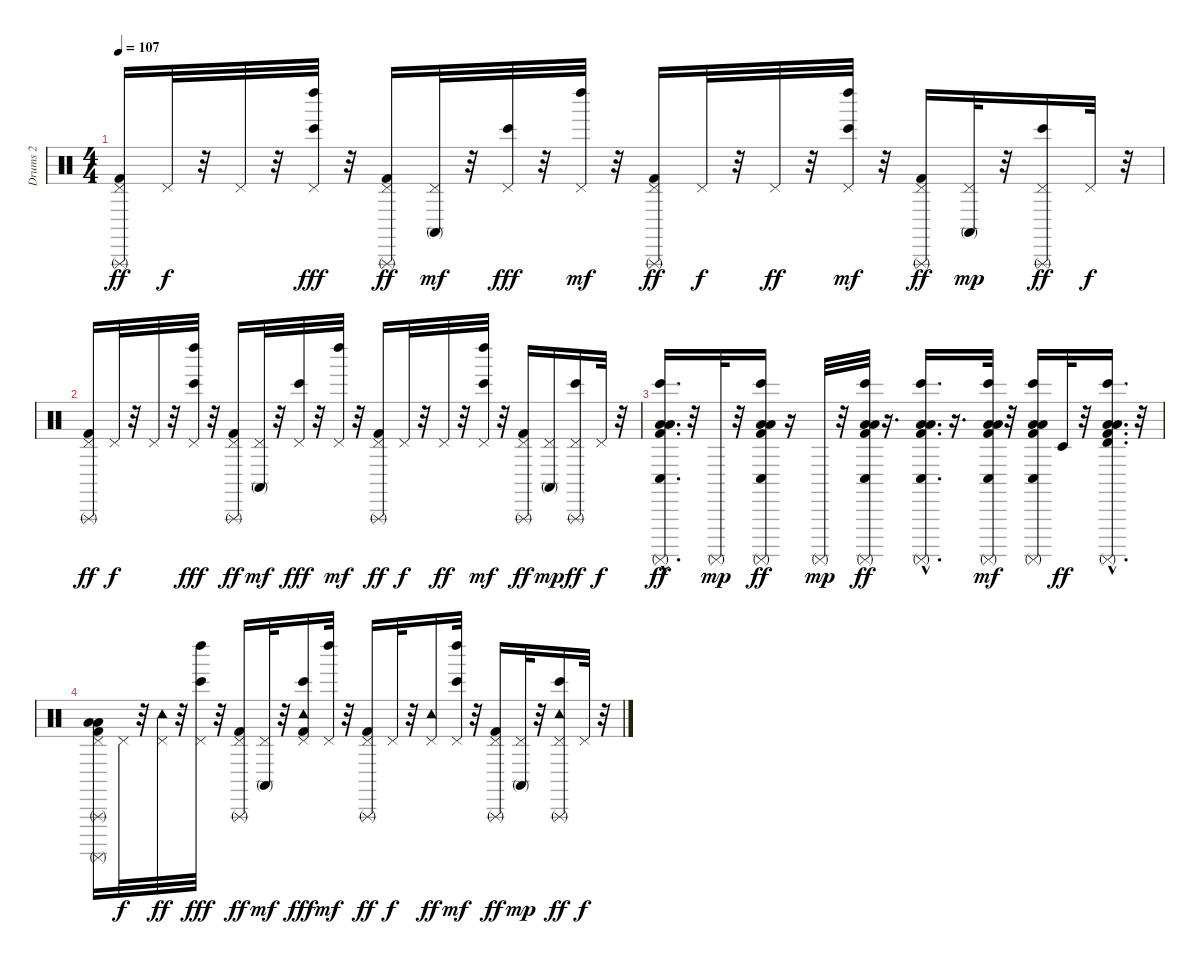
\track ("Drums 2" "Drums 2") {instrument percussion}
\staff {score}
\articulation defaults
\ts (4 4)
\tempo 107
\clef neutral
\ks c
("Kick (hit) 2" "Pedal Hi-Hat (hit)" "Triangle (rnute)").16{dy ff} "Pedal Hi-Hat (hit)".32{dy f} r.32 "Pedal Hi-Hat (hit)".32 r.32 ("Pedal Hi-Hat (hit)" "Bongo High (hit)" "Left Maraca (hit)").32{dy fff} r.32 ("Kick (hit) 2" "Pedal Hi-Hat (hit)" "Triangle (rnute)").16{dy ff} ("Pedal Hi-Hat (hit)" "Conga high (mute)").32{dy mf} r.32 ("Pedal Hi-Hat (hit)" "Bongo High (hit)").32{dy fff} r.32 ("Pedal Hi-Hat (hit)" "Left Maraca (hit)").32{dy mf} r.32 ("Kick (hit) 2" "Pedal Hi-Hat (hit)" "Triangle (rnute)").16{dy ff} "Pedal Hi-Hat (hit)".32{dy f} r.32 "Pedal Hi-Hat (hit)".32{dy ff} r.32 ("Pedal Hi-Hat (hit)" "Bongo High (hit)" "Left Maraca (hit)").32{dy mf} r.32 ("Kick (hit) 2" "Pedal Hi-Hat (hit)" "Triangle (rnute)").16{dy ff} ("Pedal Hi-Hat (hit)" "Conga high (mute)").32{dy mp} r.32 ("Pedal Hi-Hat (hit)" "Bongo High (hit)" "Triangle (rnute)").16{dy ff} "Pedal Hi-Hat (hit)".32{dy f} r.32 |
("Kick (hit) 2" "Pedal Hi-Hat (hit)" "Triangle (rnute)").16{dy ff} "Pedal Hi-Hat (hit)".32{dy f} r.32 "Pedal Hi-Hat (hit)".32 r.32 ("Pedal Hi-Hat (hit)" "Bongo High (hit)" "Left Maraca (hit)").32{dy fff} r.32 ("Kick (hit) 2" "Pedal Hi-Hat (hit)" "Triangle (rnute)").16{dy ff} ("Pedal Hi-Hat (hit)" "Conga high (mute)").32{dy mf} r.32 ("Pedal Hi-Hat (hit)" "Bongo High (hit)").32{dy fff} r.32 ("Pedal Hi-Hat (hit)" "Left Maraca (hit)").32{dy mf} r.32 ("Kick (hit) 2" "Pedal Hi-Hat (hit)" "Triangle (rnute)").16{dy ff} "Pedal Hi-Hat (hit)".32{dy f} r.32 "Pedal Hi-Hat (hit)".32{dy ff} r.32 ("Pedal Hi-Hat (hit)" "Bongo High (hit)" "Left Maraca (hit)").32{dy mf} r.32 ("Kick (hit) 2" "Pedal Hi-Hat (hit)" "Triangle (rnute)").16{dy ff} ("Pedal Hi-Hat (hit)" "Conga high (mute)").16{dy mp} ("Pedal Hi-Hat (hit)" "Bongo High (hit)" "Triangle (rnute)").16{dy ff} "Pedal Hi-Hat (hit)".32{dy f} r.32 |
("Surdo (mute)"{hac} "Kick (hit) 2"{hac} "Low Tom (hit)"{hac} "Low Floor Tom (hit)"{hac} "Bongo High (hit)"{hac} "Conga low (hit)"{hac}).16{d dy ff} r.32 "Surdo (mute)".32{dy mp} r.32 ("Kick (hit) 2" "Surdo (mute)" "Low Floor Tom (hit)" "Low Tom (hit)" "Conga low (hit)" "Bongo High (hit)").16{dy ff} r.16 "Surdo (mute)".32{dy mp} r.32 ("Surdo (mute)" "Kick (hit) 2" "Low Tom (hit)" "Low Floor Tom (hit)" "Conga low (hit)" "Bongo High (hit)").32{dy ff} r.16{d} ("Surdo (mute)"{hac} "Kick (hit) 2"{hac} "Low Tom (hit)"{hac} "Low Floor Tom (hit)"{hac} "Conga low (hit)"{hac} "Bongo High (hit)"{hac}).16{d} r.16{d} ("Surdo (mute)" "Kick (hit) 2" "Low Tom (hit)" "Low Floor Tom (hit)" "Bongo High (hit)" "Conga low (hit)").32{dy mf} r.32 ("Surdo (mute)" "Kick (hit) 2" "Low Tom (hit)" "Low Floor Tom (hit)" "Bongo High (hit)" "Conga low (hit)").16 "Timbale low (hit)".32{dy ff} r.32 ("Kick (hit) 2"{hac} "Surdo (mute)"{hac} "Low Tom (hit)"{hac} "Low Floor Tom (hit)"{hac} "Bongo High (hit)"{hac} "Timbale high (hit)"{hac}).16{d} r.32 |
("Kick (hit) 2" "Pedal Hi-Hat (hit)" "Low Tom (hit)" "Low Floor Tom (hit)" "Surdo (mute)" "Triangle (rnute)").16 "Pedal Hi-Hat (hit)".32{dy f} r.32 ("Tambourine (hit)" "Pedal Hi-Hat (hit)").32{dy ff} r.32 ("Pedal Hi-Hat (hit)" "Bongo High (hit)" "Left Maraca (hit)").32{dy fff} r.32 ("Kick (hit) 2" "Pedal Hi-Hat (hit)" "Triangle (rnute)").16{dy ff} ("Pedal Hi-Hat (hit)" "Conga high (mute)").32{dy mf} r.32 ("Kick (hit) 2" "Tambourine (hit)" "Pedal Hi-Hat (hit)" "Bongo High (hit)").16{dy fff} ("Pedal Hi-Hat (hit)" "Left Maraca (hit)").32{dy mf} r.32 ("Kick (hit) 2" "Pedal Hi-Hat (hit)" "Triangle (rnute)").16{dy ff} "Pedal Hi-Hat (hit)".32{dy f} r.32 ("Tambourine (hit)" "Pedal Hi-Hat (hit)").16{dy ff} ("Pedal Hi-Hat (hit)" "Bongo High (hit)" "Left Maraca (hit)").32{dy mf} r.32 ("Kick (hit) 2" "Pedal Hi-Hat (hit)" "Triangle (rnute)").16{dy ff} ("Pedal Hi-Hat (hit)" "Conga high (mute)").32{dy mp} r.32 ("Tambourine (hit)" "Pedal Hi-Hat (hit)" "Bongo High (hit)" "Triangle (rnute)").16{dy ff} "Pedal Hi-Hat (hit)".32{dy f} r.32
